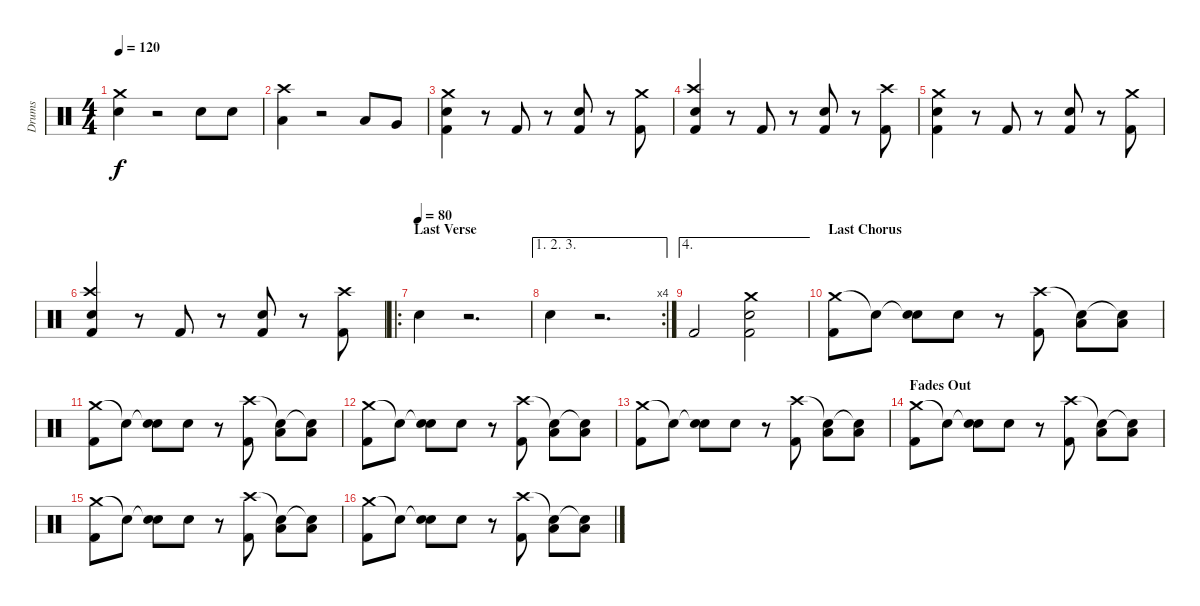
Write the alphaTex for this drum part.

\track ("Drums" "Drums") {instrument percussion}
\staff {score}
\articulation defaults
\ts (4 4)
\tempo 120
\clef neutral
\ks c
("Crash medium (hit)" "Snare (hit) 2").4{dy f} r.2 "Snare (hit) 2".8 "Snare (hit) 2".8 |
("Crash high (hit)" "Low Floor Tom (hit)").4 r.2 "Low Tom (hit)".8 "Very Low Tom (hit)".8 |
("Crash medium (hit)" "Snare (hit) 2" "Kick (hit) 2").4 r.8 "Kick (hit) 2".8 r.8 ("Snare (hit) 2" "Kick (hit) 2").8 r.8 ("Crash medium (hit)" "Kick (hit) 2").8 |
("Crash high (hit)" "Snare (hit) 2" "Kick (hit) 2").4 r.8 "Kick (hit) 2".8 r.8 ("Snare (hit) 2" "Kick (hit) 2").8 r.8 ("Crash high (hit)" "Kick (hit) 2").8 |
("Crash medium (hit)" "Snare (hit) 2" "Kick (hit) 2").4 r.8 "Kick (hit) 2".8 r.8 ("Snare (hit) 2" "Kick (hit) 2").8 r.8 ("Crash medium (hit)" "Kick (hit) 2").8 |
("Crash high (hit)" "Snare (hit) 2" "Kick (hit) 2").4 r.8 "Kick (hit) 2".8 r.8 ("Snare (hit) 2" "Kick (hit) 2").8 r.8 ("Crash high (hit)" "Kick (hit) 2").8 |
\ro
\section ("" "Last Verse")
\tempo (80)
"Snare (hit) 2".4 r.2{d} |
\ae (1 2 3)
\rc 4 "Snare (hit) 2".4
r.2{d} |
\ae 4 "Kick (hit) 2".2
("Crash medium (hit)" "Snare (hit) 2" "Kick (hit) 2").2 |
\section ("" "Last Chorus")
("Crash medium (hit)" "Kick (hit) 2").8 "Snare (hit)"{t}.8 ("Snare (hit)"{t} "Snare (hit) 2").8 "Snare (hit) 2".8 r.8 ("Crash high (hit)" "Kick (hit) 2").8 ("Snare (hit)"{t} "Low Floor Tom (hit)").8 ("Snare (hit)"{t} "Low Tom (hit)").8 |
("Crash medium (hit)" "Kick (hit) 2").8 "Snare (hit)"{t}.8 ("Snare (hit)"{t} "Snare (hit) 2").8 "Snare (hit) 2".8 r.8 ("Crash high (hit)" "Kick (hit) 2").8 ("Snare (hit)"{t} "Low Floor Tom (hit)").8 ("Snare (hit)"{t} "Low Tom (hit)").8 |
("Crash medium (hit)" "Kick (hit) 2").8 "Snare (hit)"{t}.8 ("Snare (hit)"{t} "Snare (hit) 2").8 "Snare (hit) 2".8 r.8 ("Crash high (hit)" "Kick (hit) 2").8 ("Snare (hit)"{t} "Low Floor Tom (hit)").8 ("Snare (hit)"{t} "Low Tom (hit)").8 |
("Crash medium (hit)" "Kick (hit) 2").8 "Snare (hit)"{t}.8 ("Snare (hit)"{t} "Snare (hit) 2").8 "Snare (hit) 2".8 r.8 ("Crash high (hit)" "Kick (hit) 2").8 ("Snare (hit)"{t} "Low Floor Tom (hit)").8 ("Snare (hit)"{t} "Low Tom (hit)").8 |
\section ("" "Fades Out")
("Crash medium (hit)" "Kick (hit) 2").8 "Snare (hit)"{t}.8 ("Snare (hit)"{t} "Snare (hit) 2").8 "Snare (hit) 2".8 r.8 ("Crash high (hit)" "Kick (hit) 2").8 ("Snare (hit)"{t} "Low Floor Tom (hit)").8 ("Snare (hit)"{t} "Low Tom (hit)").8 |
("Crash medium (hit)" "Kick (hit) 2").8 "Snare (hit)"{t}.8 ("Snare (hit)"{t} "Snare (hit) 2").8 "Snare (hit) 2".8 r.8 ("Crash high (hit)" "Kick (hit) 2").8 ("Snare (hit)"{t} "Low Floor Tom (hit)").8 ("Snare (hit)"{t} "Low Tom (hit)").8 |
("Crash medium (hit)" "Kick (hit) 2").8 "Snare (hit)"{t}.8 ("Snare (hit)"{t} "Snare (hit) 2").8 "Snare (hit) 2".8 r.8 ("Crash high (hit)" "Kick (hit) 2").8 ("Snare (hit)"{t} "Low Floor Tom (hit)").8 ("Snare (hit)"{t} "Low Tom (hit)").8
